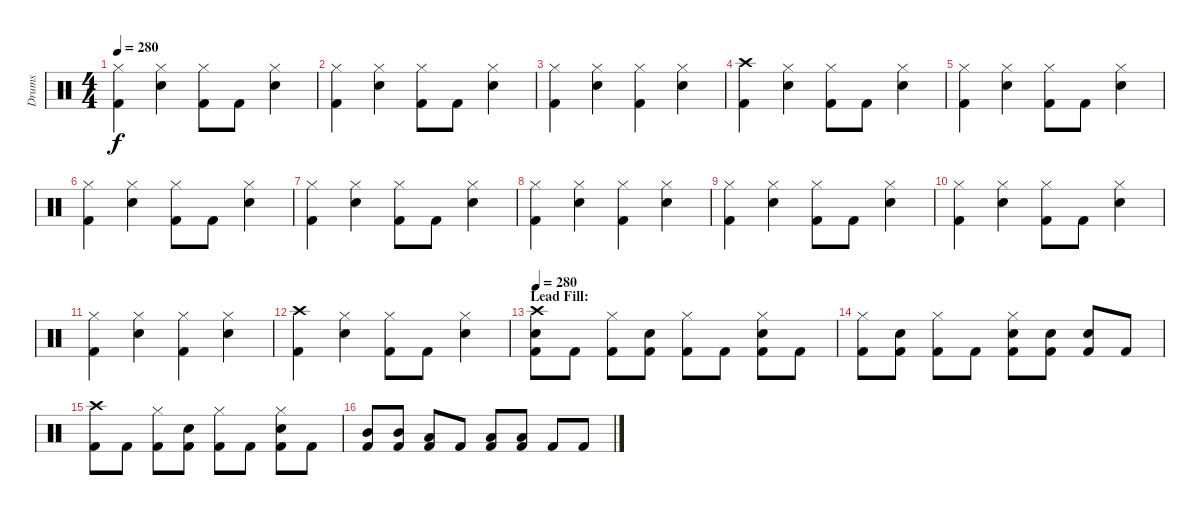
\track ("Drums" "Drums") {instrument percussion}
\staff {score}
\articulation defaults
\ts (4 4)
\tempo 280
\clef neutral
\ks c
("Hi-Hat (closed)" "Kick (hit) 2").4{dy f} ("Hi-Hat (closed)" "Snare (hit) 2").4 ("Hi-Hat (closed)" "Kick (hit) 2").8 "Kick (hit) 2".8 ("Hi-Hat (closed)" "Snare (hit) 2").4 |
("Hi-Hat (closed)" "Kick (hit) 2").4 ("Hi-Hat (closed)" "Snare (hit) 2").4 ("Hi-Hat (closed)" "Kick (hit) 2").8 "Kick (hit) 2".8 ("Hi-Hat (closed)" "Snare (hit) 2").4 |
("Hi-Hat (closed)" "Kick (hit) 2").4 ("Hi-Hat (closed)" "Snare (hit) 2").4 ("Hi-Hat (closed)" "Kick (hit) 2").4 ("Hi-Hat (closed)" "Snare (hit) 2").4 |
("Crash high (hit)" "Kick (hit) 2").4 ("Hi-Hat (closed)" "Snare (hit) 2").4 ("Hi-Hat (closed)" "Kick (hit) 2").8 "Kick (hit) 2".8 ("Hi-Hat (closed)" "Snare (hit) 2").4 |
("Hi-Hat (closed)" "Kick (hit) 2").4 ("Hi-Hat (closed)" "Snare (hit) 2").4 ("Hi-Hat (closed)" "Kick (hit) 2").8 "Kick (hit) 2".8 ("Hi-Hat (closed)" "Snare (hit) 2").4 |
("Hi-Hat (closed)" "Kick (hit) 2").4 ("Hi-Hat (closed)" "Snare (hit) 2").4 ("Hi-Hat (closed)" "Kick (hit) 2").8 "Kick (hit) 2".8 ("Hi-Hat (closed)" "Snare (hit) 2").4 |
("Hi-Hat (closed)" "Kick (hit) 2").4 ("Hi-Hat (closed)" "Snare (hit) 2").4 ("Hi-Hat (closed)" "Kick (hit) 2").8 "Kick (hit) 2".8 ("Hi-Hat (closed)" "Snare (hit) 2").4 |
("Hi-Hat (closed)" "Kick (hit) 2").4 ("Hi-Hat (closed)" "Snare (hit) 2").4 ("Hi-Hat (closed)" "Kick (hit) 2").4 ("Hi-Hat (closed)" "Snare (hit) 2").4 |
("Hi-Hat (closed)" "Kick (hit) 2").4 ("Hi-Hat (closed)" "Snare (hit) 2").4 ("Hi-Hat (closed)" "Kick (hit) 2").8 "Kick (hit) 2".8 ("Hi-Hat (closed)" "Snare (hit) 2").4 |
("Hi-Hat (closed)" "Kick (hit) 2").4 ("Hi-Hat (closed)" "Snare (hit) 2").4 ("Hi-Hat (closed)" "Kick (hit) 2").8 "Kick (hit) 2".8 ("Hi-Hat (closed)" "Snare (hit) 2").4 |
("Hi-Hat (closed)" "Kick (hit) 2").4 ("Hi-Hat (closed)" "Snare (hit) 2").4 ("Hi-Hat (closed)" "Kick (hit) 2").4 ("Hi-Hat (closed)" "Snare (hit) 2").4 |
("Crash high (hit)" "Kick (hit) 2").4 ("Hi-Hat (closed)" "Snare (hit) 2").4 ("Hi-Hat (closed)" "Kick (hit) 2").8 "Kick (hit) 2".8 ("Hi-Hat (closed)" "Snare (hit) 2").4 |
\section ("" "Lead Fill:")
\tempo 280
("Crash high (hit)" "Snare (hit) 2" "Kick (hit) 2").8 "Kick (hit) 2".8 ("Hi-Hat (closed)" "Kick (hit) 2").8 ("Snare (hit) 2" "Kick (hit) 2").8 ("Hi-Hat (closed)" "Kick (hit) 2").8 "Kick (hit) 2".8 ("Hi-Hat (closed)" "Snare (hit) 2" "Kick (hit) 2").8 "Kick (hit) 2".8 |
("Hi-Hat (closed)" "Kick (hit) 2").8 ("Snare (hit) 2" "Kick (hit) 2").8 ("Hi-Hat (closed)" "Kick (hit) 2").8 "Kick (hit) 2".8 ("Hi-Hat (closed)" "Snare (hit) 2" "Kick (hit) 2").8 ("Snare (hit) 2" "Kick (hit) 2").8 ("Snare (hit) 2" "Kick (hit) 2").8 "Kick (hit) 2".8 |
("Crash high (hit)" "Kick (hit) 2").8 "Kick (hit) 2".8 ("Hi-Hat (closed)" "Kick (hit) 2").8 ("Snare (hit) 2" "Kick (hit) 2").8 ("Hi-Hat (closed)" "Kick (hit) 2").8 "Kick (hit) 2".8 ("Hi-Hat (closed)" "Snare (hit) 2" "Kick (hit) 2").8 "Kick (hit) 2".8 |
("Mid Tom (hit)" "Kick (hit) 2").8 ("Mid Tom (hit)" "Kick (hit) 2").8 ("Low Tom (hit)" "Kick (hit) 2").8 "Kick (hit) 2".8 ("Low Tom (hit)" "Kick (hit) 2").8 ("Low Tom (hit)" "Kick (hit) 2").8 "Kick (hit) 2".8 "Kick (hit) 2".8
